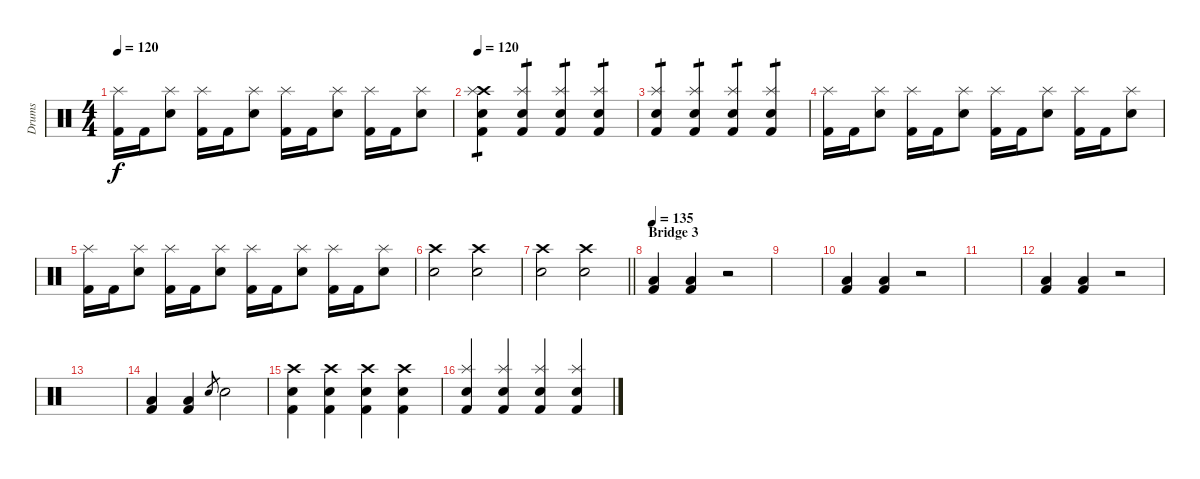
\track ("Drums" "Drums") {instrument percussion}
\staff {score}
\articulation defaults
\ts (4 4)
\tempo 120
\clef neutral
\ks c
("Kick (hit) 2" "Splash (hit)").16{dy f} "Kick (hit) 2".16 ("Electric Snare (hit)" "Splash (hit)").8 ("Kick (hit) 2" "Splash (hit)").16 "Kick (hit) 2".16 ("Electric Snare (hit)" "Splash (hit)").8 ("Kick (hit) 2" "Splash (hit)").16 "Kick (hit) 2".16 ("Electric Snare (hit)" "Splash (hit)").8 ("Kick (hit) 2" "Splash (hit)").16 "Kick (hit) 2".16 ("Electric Snare (hit)" "Splash (hit)").8 |
\tempo 120
("Kick (hit) 2" "Electric Snare (hit)" "Crash high (hit)" "Splash (hit)").4{tp 1} ("Kick (hit) 2" "Electric Snare (hit)" "Splash (hit)").4{tp 1} ("Kick (hit) 2" "Electric Snare (hit)" "Splash (hit)").4{tp 1} ("Kick (hit) 2" "Electric Snare (hit)" "Splash (hit)").4{tp 1} |
("Kick (hit) 2" "Electric Snare (hit)" "Splash (hit)").4{tp 1} ("Kick (hit) 2" "Electric Snare (hit)" "Splash (hit)").4{tp 1} ("Kick (hit) 2" "Electric Snare (hit)" "Splash (hit)").4{tp 1} ("Kick (hit) 2" "Electric Snare (hit)" "Splash (hit)").4{tp 1} |
("Kick (hit) 2" "Splash (hit)").16 "Kick (hit) 2".16 ("Electric Snare (hit)" "Splash (hit)").8 ("Kick (hit) 2" "Splash (hit)").16 "Kick (hit) 2".16 ("Electric Snare (hit)" "Splash (hit)").8 ("Kick (hit) 2" "Splash (hit)").16 "Kick (hit) 2".16 ("Electric Snare (hit)" "Splash (hit)").8 ("Kick (hit) 2" "Splash (hit)").16 "Kick (hit) 2".16 ("Electric Snare (hit)" "Splash (hit)").8 |
("Kick (hit) 2" "Splash (hit)").16 "Kick (hit) 2".16 ("Electric Snare (hit)" "Splash (hit)").8 ("Kick (hit) 2" "Splash (hit)").16 "Kick (hit) 2".16 ("Electric Snare (hit)" "Splash (hit)").8 ("Kick (hit) 2" "Splash (hit)").16 "Kick (hit) 2".16 ("Electric Snare (hit)" "Splash (hit)").8 ("Kick (hit) 2" "Splash (hit)").16 "Kick (hit) 2".16 ("Electric Snare (hit)" "Splash (hit)").8 |
("Electric Snare (hit)" "Crash high (hit)").2 ("Electric Snare (hit)" "Crash high (hit)").2 |
\barLineRight lightlight
("Electric Snare (hit)" "Crash high (hit)").2 ("Electric Snare (hit)" "Crash high (hit)").2 |
\section ("" "Bridge 3")
\tempo 135
("Kick (hit) 2" "Low Tom (hit)").4 ("Kick (hit) 2" "Low Tom (hit)").4 r.2 |
|
("Kick (hit) 2" "Low Tom (hit)").4 ("Kick (hit) 2" "Low Tom (hit)").4 r.2 |
|
("Kick (hit) 2" "Low Tom (hit)").4 ("Kick (hit) 2" "Low Tom (hit)").4 r.2 |
|
("Kick (hit) 2" "Low Tom (hit)").4 ("Kick (hit) 2" "Low Tom (hit)").4 "Electric Snare (hit)".8{gr} "Electric Snare (hit)".2 |
("Kick (hit) 2" "Electric Snare (hit)" "Crash high (hit)").4 ("Kick (hit) 2" "Electric Snare (hit)" "Crash high (hit)").4 ("Kick (hit) 2" "Electric Snare (hit)" "Crash high (hit)").4 ("Kick (hit) 2" "Electric Snare (hit)" "Crash high (hit)").4 |
("Kick (hit) 2" "Electric Snare (hit)" "Splash (hit)").4 ("Kick (hit) 2" "Electric Snare (hit)" "Splash (hit)").4 ("Kick (hit) 2" "Electric Snare (hit)" "Splash (hit)").4 ("Kick (hit) 2" "Electric Snare (hit)" "Splash (hit)").4
